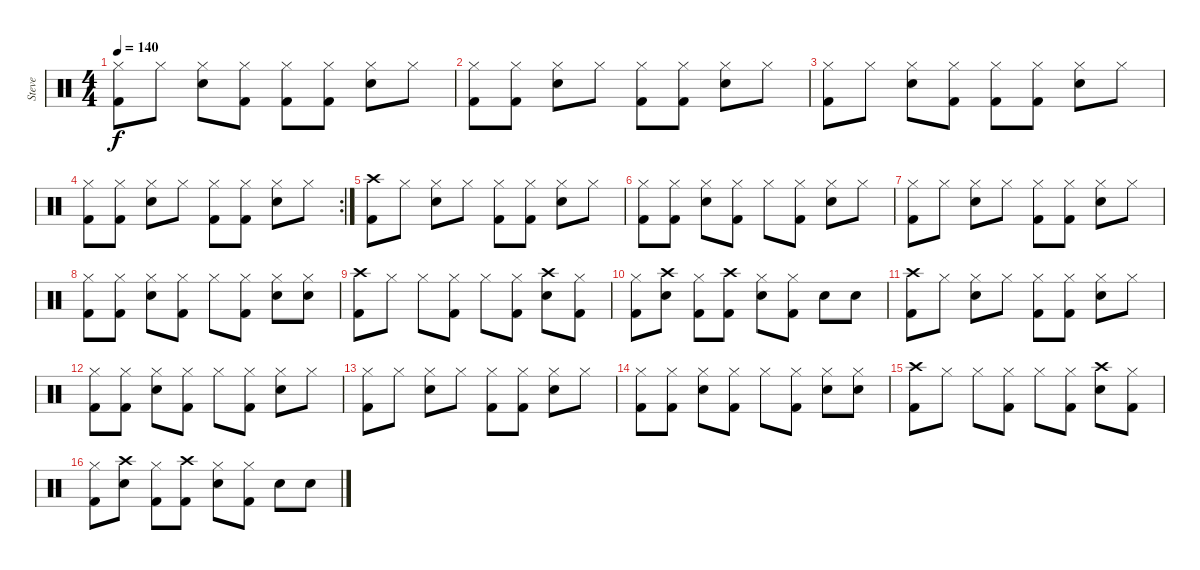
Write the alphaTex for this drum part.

\track ("Steve" "Steve") {instrument percussion}
\staff {score}
\articulation defaults
\ts (4 4)
\tempo 140
\clef neutral
\ks c
("Hi-Hat (closed)" "Kick (hit) 2").8{dy f} "Hi-Hat (closed)".8 ("Hi-Hat (closed)" "Snare (hit) 2").8 ("Hi-Hat (closed)" "Kick (hit) 2").8 ("Hi-Hat (closed)" "Kick (hit) 2").8 ("Hi-Hat (closed)" "Kick (hit) 2").8 ("Hi-Hat (closed)" "Snare (hit) 2").8 "Hi-Hat (closed)".8 |
("Hi-Hat (closed)" "Kick (hit) 2").8 ("Hi-Hat (closed)" "Kick (hit) 2").8 ("Hi-Hat (closed)" "Snare (hit) 2").8 "Hi-Hat (closed)".8 ("Hi-Hat (closed)" "Kick (hit) 2").8 ("Hi-Hat (closed)" "Kick (hit) 2").8 ("Hi-Hat (closed)" "Snare (hit) 2").8 "Hi-Hat (closed)".8 |
("Hi-Hat (closed)" "Kick (hit) 2").8 "Hi-Hat (closed)".8 ("Hi-Hat (closed)" "Snare (hit) 2").8 ("Hi-Hat (closed)" "Kick (hit) 2").8 ("Hi-Hat (closed)" "Kick (hit) 2").8 ("Hi-Hat (closed)" "Kick (hit) 2").8 ("Hi-Hat (closed)" "Snare (hit) 2").8 "Hi-Hat (closed)".8 |
\rc 2
("Hi-Hat (closed)" "Kick (hit) 2").8 ("Hi-Hat (closed)" "Kick (hit) 2").8 ("Hi-Hat (closed)" "Snare (hit) 2").8 "Hi-Hat (closed)".8 ("Hi-Hat (closed)" "Kick (hit) 2").8 ("Hi-Hat (closed)" "Kick (hit) 2").8 ("Hi-Hat (closed)" "Snare (hit) 2").8 "Hi-Hat (closed)".8 |
("Crash high (hit)" "Kick (hit) 2").8 "Hi-Hat (closed)".8 ("Hi-Hat (closed)" "Snare (hit) 2").8 "Hi-Hat (closed)".8 ("Hi-Hat (closed)" "Kick (hit) 2").8 ("Hi-Hat (closed)" "Kick (hit) 2").8 ("Hi-Hat (closed)" "Snare (hit) 2").8 "Hi-Hat (closed)".8 |
("Hi-Hat (closed)" "Kick (hit) 2").8 ("Hi-Hat (closed)" "Kick (hit) 2").8 ("Hi-Hat (closed)" "Snare (hit) 2").8 ("Hi-Hat (closed)" "Kick (hit) 2").8 "Hi-Hat (closed)".8 ("Hi-Hat (closed)" "Kick (hit) 2").8 ("Hi-Hat (closed)" "Snare (hit) 2").8 "Hi-Hat (closed)".8 |
("Hi-Hat (closed)" "Kick (hit) 2").8 "Hi-Hat (closed)".8 ("Hi-Hat (closed)" "Snare (hit) 2").8 "Hi-Hat (closed)".8 ("Hi-Hat (closed)" "Kick (hit) 2").8 ("Hi-Hat (closed)" "Kick (hit) 2").8 ("Hi-Hat (closed)" "Snare (hit) 2").8 "Hi-Hat (closed)".8 |
("Hi-Hat (closed)" "Kick (hit) 2").8 ("Hi-Hat (closed)" "Kick (hit) 2").8 ("Hi-Hat (closed)" "Snare (hit) 2").8 ("Hi-Hat (closed)" "Kick (hit) 2").8 "Hi-Hat (closed)".8 ("Hi-Hat (closed)" "Kick (hit) 2").8 ("Hi-Hat (closed)" "Snare (hit) 2").8 ("Hi-Hat (closed)" "Snare (hit) 2").8 |
("Crash high (hit)" "Kick (hit) 2").8 "Hi-Hat (closed)".8 "Hi-Hat (closed)".8 ("Hi-Hat (closed)" "Kick (hit) 2").8 "Hi-Hat (closed)".8 ("Hi-Hat (closed)" "Kick (hit) 2").8 ("Crash high (hit)" "Snare (hit) 2").8 ("Hi-Hat (closed)" "Kick (hit) 2").8 |
("Hi-Hat (closed)" "Kick (hit) 2").8 ("Crash high (hit)" "Snare (hit) 2").8 ("Hi-Hat (closed)" "Kick (hit) 2").8 ("Crash high (hit)" "Kick (hit) 2").8 ("Hi-Hat (closed)" "Snare (hit) 2").8 ("Hi-Hat (closed)" "Kick (hit) 2").8 "Snare (hit) 2".8 "Snare (hit) 2".8 |
("Crash high (hit)" "Kick (hit) 2").8 "Hi-Hat (closed)".8 ("Hi-Hat (closed)" "Snare (hit) 2").8 "Hi-Hat (closed)".8 ("Hi-Hat (closed)" "Kick (hit) 2").8 ("Hi-Hat (closed)" "Kick (hit) 2").8 ("Hi-Hat (closed)" "Snare (hit) 2").8 "Hi-Hat (closed)".8 |
("Hi-Hat (closed)" "Kick (hit) 2").8 ("Hi-Hat (closed)" "Kick (hit) 2").8 ("Hi-Hat (closed)" "Snare (hit) 2").8 ("Hi-Hat (closed)" "Kick (hit) 2").8 "Hi-Hat (closed)".8 ("Hi-Hat (closed)" "Kick (hit) 2").8 ("Hi-Hat (closed)" "Snare (hit) 2").8 "Hi-Hat (closed)".8 |
("Hi-Hat (closed)" "Kick (hit) 2").8 "Hi-Hat (closed)".8 ("Hi-Hat (closed)" "Snare (hit) 2").8 "Hi-Hat (closed)".8 ("Hi-Hat (closed)" "Kick (hit) 2").8 ("Hi-Hat (closed)" "Kick (hit) 2").8 ("Hi-Hat (closed)" "Snare (hit) 2").8 "Hi-Hat (closed)".8 |
("Hi-Hat (closed)" "Kick (hit) 2").8 ("Hi-Hat (closed)" "Kick (hit) 2").8 ("Hi-Hat (closed)" "Snare (hit) 2").8 ("Hi-Hat (closed)" "Kick (hit) 2").8 "Hi-Hat (closed)".8 ("Hi-Hat (closed)" "Kick (hit) 2").8 ("Hi-Hat (closed)" "Snare (hit) 2").8 ("Hi-Hat (closed)" "Snare (hit) 2").8 |
("Crash high (hit)" "Kick (hit) 2").8 "Hi-Hat (closed)".8 "Hi-Hat (closed)".8 ("Hi-Hat (closed)" "Kick (hit) 2").8 "Hi-Hat (closed)".8 ("Hi-Hat (closed)" "Kick (hit) 2").8 ("Crash high (hit)" "Snare (hit) 2").8 ("Hi-Hat (closed)" "Kick (hit) 2").8 |
("Hi-Hat (closed)" "Kick (hit) 2").8 ("Crash high (hit)" "Snare (hit) 2").8 ("Hi-Hat (closed)" "Kick (hit) 2").8 ("Crash high (hit)" "Kick (hit) 2").8 ("Hi-Hat (closed)" "Snare (hit) 2").8 ("Hi-Hat (closed)" "Kick (hit) 2").8 "Snare (hit) 2".8 "Snare (hit) 2".8
